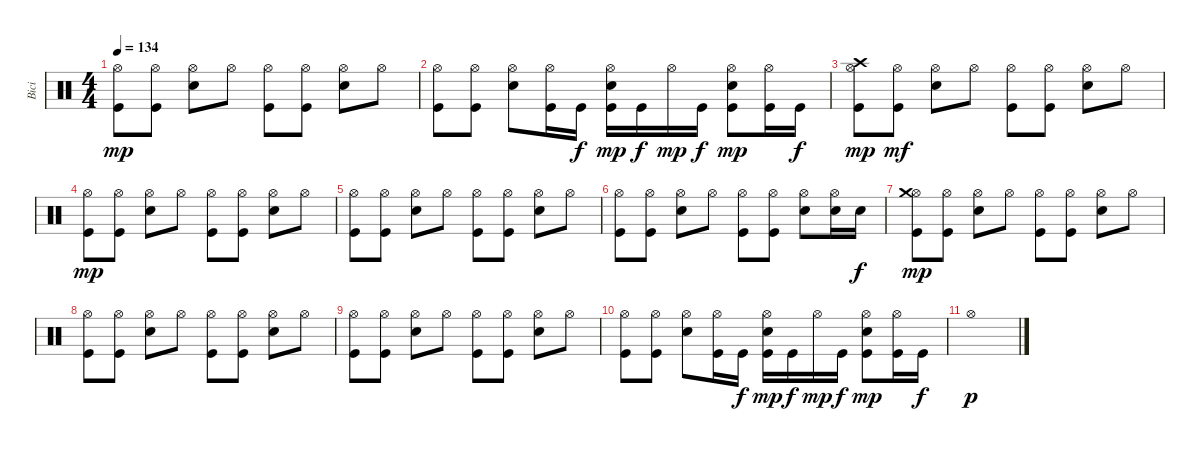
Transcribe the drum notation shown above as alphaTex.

\track ("Bici" "Bici") {instrument percussion}
\staff {score}
\articulation defaults
\ts (4 4)
\tempo 134
\clef neutral
\ks c
("Kick (hit)" "Hi-Hat (open)").8{dy mp} ("Kick (hit)" "Hi-Hat (open)").8 ("Electric Snare (hit)" "Hi-Hat (open)").8 "Hi-Hat (open)".8 ("Kick (hit)" "Hi-Hat (open)").8 ("Kick (hit)" "Hi-Hat (open)").8 ("Electric Snare (hit)" "Hi-Hat (open)").8 "Hi-Hat (open)".8 |
("Kick (hit)" "Hi-Hat (open)").8 ("Kick (hit)" "Hi-Hat (open)").8 ("Electric Snare (hit)" "Hi-Hat (open)").8 ("Kick (hit)" "Hi-Hat (open)").16 "Kick (hit)".16{dy f} ("Kick (hit)" "Electric Snare (hit)" "Hi-Hat (open)").16{dy mp} "Kick (hit)".16{dy f} "Hi-Hat (open)".16{dy mp} "Kick (hit)".16{dy f} ("Kick (hit)" "Electric Snare (hit)" "Hi-Hat (open)").8{dy mp} ("Kick (hit)" "Hi-Hat (open)").16 "Kick (hit)".16{dy f} |
("Kick (hit)" "Hi-Hat (open)" "Crash high (hit)").8{dy mp} ("Kick (hit)" "Hi-Hat (open)").8{dy mf} ("Electric Snare (hit)" "Hi-Hat (open)").8 "Hi-Hat (open)".8 ("Kick (hit)" "Hi-Hat (open)").8 ("Kick (hit)" "Hi-Hat (open)").8 ("Electric Snare (hit)" "Hi-Hat (open)").8 "Hi-Hat (open)".8 |
("Kick (hit)" "Hi-Hat (open)").8{dy mp} ("Kick (hit)" "Hi-Hat (open)").8 ("Electric Snare (hit)" "Hi-Hat (open)").8 "Hi-Hat (open)".8 ("Kick (hit)" "Hi-Hat (open)").8 ("Kick (hit)" "Hi-Hat (open)").8 ("Electric Snare (hit)" "Hi-Hat (open)").8 "Hi-Hat (open)".8 |
("Kick (hit)" "Hi-Hat (open)").8 ("Kick (hit)" "Hi-Hat (open)").8 ("Electric Snare (hit)" "Hi-Hat (open)").8 "Hi-Hat (open)".8 ("Kick (hit)" "Hi-Hat (open)").8 ("Kick (hit)" "Hi-Hat (open)").8 ("Electric Snare (hit)" "Hi-Hat (open)").8 "Hi-Hat (open)".8 |
("Kick (hit)" "Hi-Hat (open)").8 ("Kick (hit)" "Hi-Hat (open)").8 ("Electric Snare (hit)" "Hi-Hat (open)").8 "Hi-Hat (open)".8 ("Kick (hit)" "Hi-Hat (open)").8 ("Kick (hit)" "Hi-Hat (open)").8 ("Electric Snare (hit)" "Hi-Hat (open)").8 ("Electric Snare (hit)" "Hi-Hat (open)").16 "Electric Snare (hit)".16{dy f} |
("Kick (hit)" "Hi-Hat (open)" "Crash medium (hit)").8{dy mp} ("Kick (hit)" "Hi-Hat (open)").8 ("Electric Snare (hit)" "Hi-Hat (open)").8 "Hi-Hat (open)".8 ("Kick (hit)" "Hi-Hat (open)").8 ("Kick (hit)" "Hi-Hat (open)").8 ("Electric Snare (hit)" "Hi-Hat (open)").8 "Hi-Hat (open)".8 |
("Kick (hit)" "Hi-Hat (open)").8 ("Kick (hit)" "Hi-Hat (open)").8 ("Electric Snare (hit)" "Hi-Hat (open)").8 "Hi-Hat (open)".8 ("Kick (hit)" "Hi-Hat (open)").8 ("Kick (hit)" "Hi-Hat (open)").8 ("Electric Snare (hit)" "Hi-Hat (open)").8 "Hi-Hat (open)".8 |
("Kick (hit)" "Hi-Hat (open)").8 ("Kick (hit)" "Hi-Hat (open)").8 ("Electric Snare (hit)" "Hi-Hat (open)").8 "Hi-Hat (open)".8 ("Kick (hit)" "Hi-Hat (open)").8 ("Kick (hit)" "Hi-Hat (open)").8 ("Electric Snare (hit)" "Hi-Hat (open)").8 "Hi-Hat (open)".8 |
("Kick (hit)" "Hi-Hat (open)").8 ("Kick (hit)" "Hi-Hat (open)").8 ("Electric Snare (hit)" "Hi-Hat (open)").8 ("Kick (hit)" "Hi-Hat (open)").16 "Kick (hit)".16{dy f} ("Kick (hit)" "Electric Snare (hit)" "Hi-Hat (open)").16{dy mp} "Kick (hit)".16{dy f} "Hi-Hat (open)".16{dy mp} "Kick (hit)".16{dy f} ("Kick (hit)" "Electric Snare (hit)" "Hi-Hat (open)").8{dy mp} ("Kick (hit)" "Hi-Hat (open)").16 "Kick (hit)".16{dy f} |
"Hi-Hat (open)".1{dy p}
